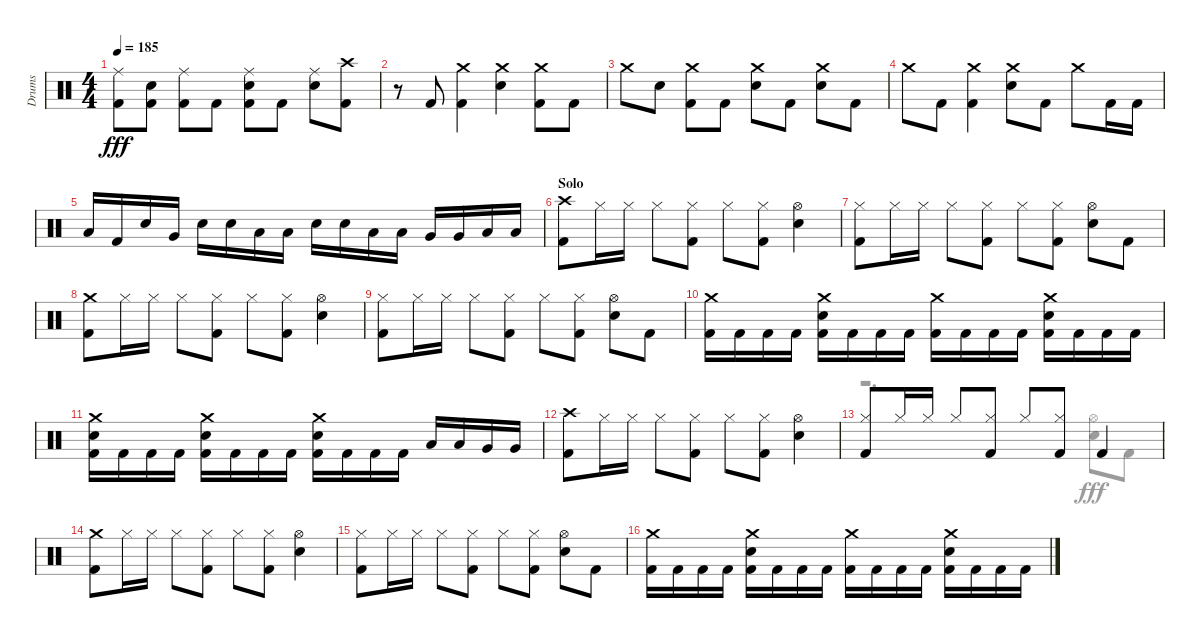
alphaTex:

\track ("Drums" "Drums") {instrument percussion}
\staff {score}
\articulation defaults
\voice
\ts (4 4)
\tempo 185
\clef neutral
\ks aminor
("Ride (middle)" "Kick (hit) 2").8{dy fff} ("Kick (hit) 2" "Snare (hit) 2").8 ("Kick (hit) 2" "Ride (middle)").8 "Kick (hit) 2".8 ("Ride (middle)" "Kick (hit) 2" "Snare (hit) 2").8 "Kick (hit) 2".8 ("Snare (hit) 2" "Ride (middle)").8 ("Crash high (hit)" "Kick (hit) 2").8 |
r.8 "Kick (hit) 2".8 ("Kick (hit) 2" "Crash medium (hit)").4 ("Snare (hit) 2" "Crash medium (hit)").4 ("Crash medium (hit)" "Kick (hit) 2").8 "Kick (hit) 2".8 |
"Crash medium (hit)".8 "Snare (hit) 2".8 ("Crash medium (hit)" "Kick (hit) 2").8 "Kick (hit) 2".8 ("Snare (hit) 2" "Crash medium (hit)").8 "Kick (hit) 2".8 ("Crash medium (hit)" "Snare (hit) 2").8 "Kick (hit) 2".8 |
"Crash medium (hit)".8 "Kick (hit) 2".8 ("Crash medium (hit)" "Kick (hit) 2").4 ("Snare (hit) 2" "Crash medium (hit)").8 "Kick (hit) 2".8 "Crash medium (hit)".8 "Kick (hit) 2".16 "Kick (hit) 2".16 |
"Low Tom (hit)".16 "Kick (hit) 2".16 "Snare (hit) 2".16 "Very Low Tom (hit)".16 "Snare (hit) 2".16 "Snare (hit) 2".16 "Low Floor Tom (hit)".16 "Low Floor Tom (hit)".16 "Snare (hit) 2".16 "Snare (hit) 2".16 "Low Tom (hit)".16 "Low Tom (hit)".16 "Very Low Tom (hit)".16 "Very Low Tom (hit)".16 "Low Floor Tom (hit)".16 "Low Floor Tom (hit)".16 |
\section ("" "Solo")
("Crash high (hit)" "Kick (hit) 2").8 "Hi-Hat (closed)".16 "Hi-Hat (closed)".16 "Hi-Hat (closed)".8 ("Kick (hit) 2" "Hi-Hat (closed)").8 "Hi-Hat (closed)".8 ("Hi-Hat (closed)" "Kick (hit) 2").8 ("Snare (hit) 2" "Hi-Hat (open)").4 |
("Hi-Hat (closed)" "Kick (hit) 2").8 "Hi-Hat (closed)".16 "Hi-Hat (closed)".16 "Hi-Hat (closed)".8 ("Kick (hit) 2" "Hi-Hat (closed)").8 "Hi-Hat (closed)".8 ("Kick (hit) 2" "Hi-Hat (closed)").8 ("Snare (hit) 2" "Hi-Hat (open)").8 "Kick (hit) 2".8 |
("Crash medium (hit)" "Kick (hit) 2").8 "Hi-Hat (closed)".16 "Hi-Hat (closed)".16 "Hi-Hat (closed)".8 ("Hi-Hat (closed)" "Kick (hit) 2").8 "Hi-Hat (closed)".8 ("Kick (hit) 2" "Hi-Hat (closed)").8 ("Hi-Hat (open)" "Snare (hit) 2").4 |
("Hi-Hat (closed)" "Kick (hit) 2").8 "Hi-Hat (closed)".16 "Hi-Hat (closed)".16 "Hi-Hat (closed)".8 ("Hi-Hat (closed)" "Kick (hit) 2").8 "Hi-Hat (closed)".8 ("Hi-Hat (closed)" "Kick (hit) 2").8 ("Snare (hit) 2" "Hi-Hat (open)").8 "Kick (hit) 2".8 |
("Crash medium (hit)" "Kick (hit) 2").16 "Kick (hit) 2".16 "Kick (hit) 2".16 "Kick (hit) 2".16 ("Kick (hit) 2" "Crash medium (hit)" "Snare (hit) 2").16 "Kick (hit) 2".16 "Kick (hit) 2".16 "Kick (hit) 2".16 ("Crash medium (hit)" "Kick (hit) 2").16 "Kick (hit) 2".16 "Kick (hit) 2".16 "Kick (hit) 2".16 ("Crash medium (hit)" "Kick (hit) 2" "Snare (hit) 2").16 "Kick (hit) 2".16 "Kick (hit) 2".16 "Kick (hit) 2".16 |
("Kick (hit) 2" "Crash medium (hit)" "Snare (hit) 2").16 "Kick (hit) 2".16 "Kick (hit) 2".16 "Kick (hit) 2".16 ("Kick (hit) 2" "Snare (hit) 2" "Crash medium (hit)").16 "Kick (hit) 2".16 "Kick (hit) 2".16 "Kick (hit) 2".16 ("Kick (hit) 2" "Snare (hit) 2" "Crash medium (hit)").16 "Kick (hit) 2".16 "Kick (hit) 2".16 "Kick (hit) 2".16 "Low Tom (hit)".16 "Low Tom (hit)".16 "Very Low Tom (hit)".16 "Very Low Tom (hit)".16 |
("Crash high (hit)" "Kick (hit) 2").8 "Hi-Hat (closed)".16 "Hi-Hat (closed)".16 "Hi-Hat (closed)".8 ("Kick (hit) 2" "Hi-Hat (closed)").8 "Hi-Hat (closed)".8 ("Hi-Hat (closed)" "Kick (hit) 2").8 ("Snare (hit) 2" "Hi-Hat (open)").4 |
("Hi-Hat (closed)" "Kick (hit) 2").8 "Hi-Hat (closed)".16 "Hi-Hat (closed)".16 "Hi-Hat (closed)".8 ("Kick (hit) 2" "Hi-Hat (closed)").8 "Hi-Hat (closed)".8 ("Kick (hit) 2" "Hi-Hat (closed)").8 "Kick (hit) 2".4 |
("Kick (hit) 2" "Crash medium (hit)").8 "Hi-Hat (closed)".16 "Hi-Hat (closed)".16 "Hi-Hat (closed)".8 ("Kick (hit) 2" "Hi-Hat (closed)").8 "Hi-Hat (closed)".8 ("Kick (hit) 2" "Hi-Hat (closed)").8 ("Hi-Hat (open)" "Snare (hit) 2").4 |
("Hi-Hat (closed)" "Kick (hit) 2").8 "Hi-Hat (closed)".16 "Hi-Hat (closed)".16 "Hi-Hat (closed)".8 ("Kick (hit) 2" "Hi-Hat (closed)").8 "Hi-Hat (closed)".8 ("Hi-Hat (closed)" "Kick (hit) 2").8 ("Snare (hit) 2" "Hi-Hat (open)").8 "Kick (hit) 2".8 |
("Kick (hit) 2" "Crash medium (hit)").16 "Kick (hit) 2".16 "Kick (hit) 2".16 "Kick (hit) 2".16 ("Kick (hit) 2" "Snare (hit) 2" "Crash medium (hit)").16 "Kick (hit) 2".16 "Kick (hit) 2".16 "Kick (hit) 2".16 ("Kick (hit) 2" "Crash medium (hit)").16 "Kick (hit) 2".16 "Kick (hit) 2".16 "Kick (hit) 2".16 ("Kick (hit) 2" "Crash medium (hit)" "Snare (hit) 2").16 "Kick (hit) 2".16 "Kick (hit) 2".16 "Kick (hit) 2".16
\voice
\clef neutral
\ottava regular
\simile none
\ks aminor
|
|
|
|
|
|
|
|
|
|
|
|
r.2{d} ("Hi-Hat (open)" "Snare (hit) 2").8 "Kick (hit) 2".8 |
|
|
